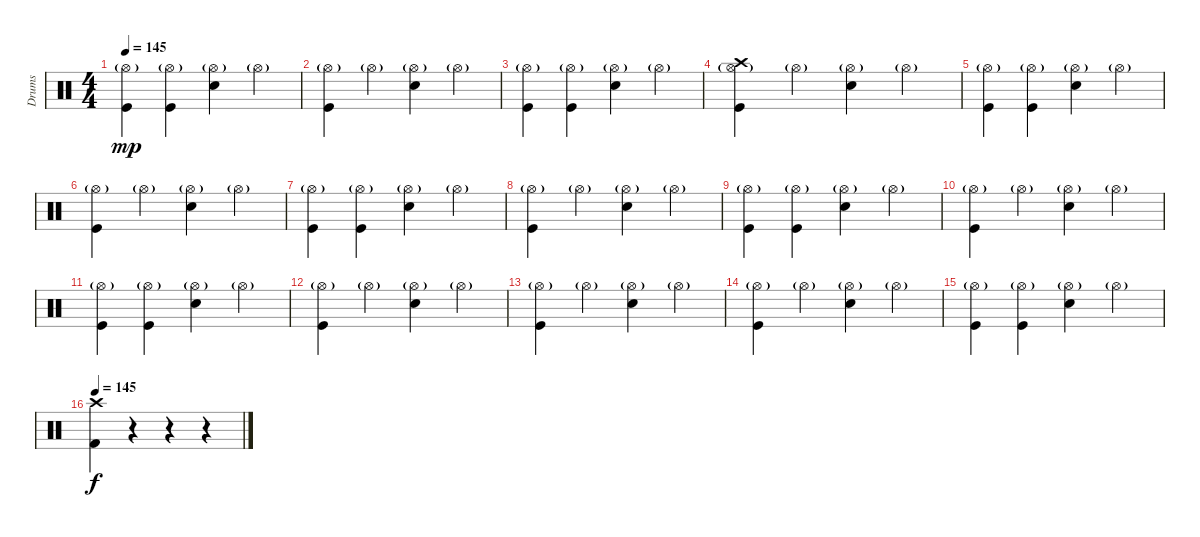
\track ("Drums" "Drums") {instrument percussion}
\staff {score}
\articulation defaults
\ts (4 4)
\tempo 145
\clef neutral
\ks c
("Hi-Hat (open)"{g} "Kick (hit)").4{dy mp} ("Hi-Hat (open)"{g} "Kick (hit)").4 ("Hi-Hat (open)"{g} "Electric Snare (hit)").4 "Hi-Hat (open)"{g}.4 |
("Hi-Hat (open)"{g} "Kick (hit)").4 "Hi-Hat (open)"{g}.4 ("Hi-Hat (open)"{g} "Electric Snare (hit)").4 "Hi-Hat (open)"{g}.4 |
("Hi-Hat (open)"{g} "Kick (hit)").4 ("Hi-Hat (open)"{g} "Kick (hit)").4 ("Hi-Hat (open)"{g} "Electric Snare (hit)").4 "Hi-Hat (open)"{g}.4 |
("Hi-Hat (open)"{g} "Crash high (hit)" "Kick (hit)").4 "Hi-Hat (open)"{g}.4 ("Hi-Hat (open)"{g} "Electric Snare (hit)").4 "Hi-Hat (open)"{g}.4 |
("Hi-Hat (open)"{g} "Kick (hit)").4 ("Hi-Hat (open)"{g} "Kick (hit)").4 ("Hi-Hat (open)"{g} "Electric Snare (hit)").4 "Hi-Hat (open)"{g}.4 |
("Hi-Hat (open)"{g} "Kick (hit)").4 "Hi-Hat (open)"{g}.4 ("Hi-Hat (open)"{g} "Electric Snare (hit)").4 "Hi-Hat (open)"{g}.4 |
("Hi-Hat (open)"{g} "Kick (hit)").4 ("Hi-Hat (open)"{g} "Kick (hit)").4 ("Hi-Hat (open)"{g} "Electric Snare (hit)").4 "Hi-Hat (open)"{g}.4 |
("Hi-Hat (open)"{g} "Kick (hit)").4 "Hi-Hat (open)"{g}.4 ("Hi-Hat (open)"{g} "Electric Snare (hit)").4 "Hi-Hat (open)"{g}.4 |
("Hi-Hat (open)"{g} "Kick (hit)").4 ("Hi-Hat (open)"{g} "Kick (hit)").4 ("Hi-Hat (open)"{g} "Electric Snare (hit)").4 "Hi-Hat (open)"{g}.4 |
("Hi-Hat (open)"{g} "Kick (hit)").4 "Hi-Hat (open)"{g}.4 ("Hi-Hat (open)"{g} "Electric Snare (hit)").4 "Hi-Hat (open)"{g}.4 |
("Hi-Hat (open)"{g} "Kick (hit)").4 ("Hi-Hat (open)"{g} "Kick (hit)").4 ("Hi-Hat (open)"{g} "Electric Snare (hit)").4 "Hi-Hat (open)"{g}.4 |
("Hi-Hat (open)"{g} "Kick (hit)").4 "Hi-Hat (open)"{g}.4 ("Hi-Hat (open)"{g} "Electric Snare (hit)").4 "Hi-Hat (open)"{g}.4 |
("Hi-Hat (open)"{g} "Kick (hit)").4 "Hi-Hat (open)"{g}.4 ("Hi-Hat (open)"{g} "Electric Snare (hit)").4 "Hi-Hat (open)"{g}.4 |
("Hi-Hat (open)"{g} "Kick (hit)").4 "Hi-Hat (open)"{g}.4 ("Hi-Hat (open)"{g} "Electric Snare (hit)").4 "Hi-Hat (open)"{g}.4 |
("Hi-Hat (open)"{g} "Kick (hit)").4 ("Hi-Hat (open)"{g} "Kick (hit)").4 ("Hi-Hat (open)"{g} "Electric Snare (hit)").4 "Hi-Hat (open)"{g}.4 |
\tempo 145
("Crash high (hit)" "Kick (hit) 2").4{dy f} r.4 r.4 r.4
